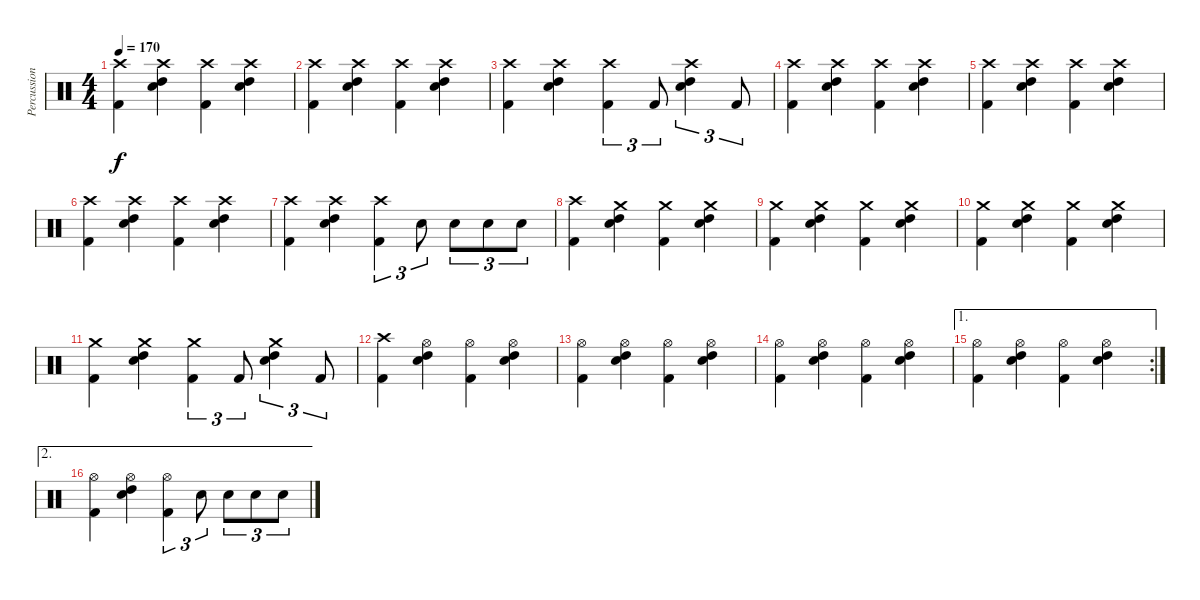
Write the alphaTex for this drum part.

\track ("Percussion" "Percussion") {instrument percussion}
\staff {score}
\articulation defaults
\ts (4 4)
\tempo 170
\clef neutral
\ks c
("Crash high (hit)" "Kick (hit) 2").4{dy f} ("Crash high (hit)" "High Tom (hit)" "Snare (hit) 2").4 ("Crash high (hit)" "Kick (hit) 2").4 ("Crash high (hit)" "High Tom (hit)" "Snare (hit) 2").4 |
("Crash high (hit)" "Kick (hit) 2").4 ("Crash high (hit)" "High Tom (hit)" "Snare (hit) 2").4 ("Crash high (hit)" "Kick (hit) 2").4 ("Crash high (hit)" "High Tom (hit)" "Snare (hit) 2").4 |
("Crash high (hit)" "Kick (hit) 2").4 ("Crash high (hit)" "High Tom (hit)" "Snare (hit) 2").4 ("Crash high (hit)" "Kick (hit) 2").4{tu (3 2)} "Kick (hit) 2".8{tu (3 2)} ("Crash high (hit)" "High Tom (hit)" "Snare (hit) 2").4{tu (3 2)} "Kick (hit) 2".8{tu (3 2)} |
("Crash high (hit)" "Kick (hit) 2").4 ("Crash high (hit)" "High Tom (hit)" "Snare (hit) 2").4 ("Crash high (hit)" "Kick (hit) 2").4 ("Crash high (hit)" "High Tom (hit)" "Snare (hit) 2").4 |
("Crash high (hit)" "Kick (hit) 2").4 ("Crash high (hit)" "High Tom (hit)" "Snare (hit) 2").4 ("Crash high (hit)" "Kick (hit) 2").4 ("Crash high (hit)" "High Tom (hit)" "Snare (hit) 2").4 |
("Crash high (hit)" "Kick (hit) 2").4 ("Crash high (hit)" "High Tom (hit)" "Snare (hit) 2").4 ("Crash high (hit)" "Kick (hit) 2").4 ("Crash high (hit)" "High Tom (hit)" "Snare (hit) 2").4 |
("Crash high (hit)" "Kick (hit) 2").4 ("Crash high (hit)" "High Tom (hit)" "Snare (hit) 2").4 ("Crash high (hit)" "Kick (hit) 2").4{tu (3 2)} "Snare (hit) 2".8{tu (3 2)} "Snare (hit) 2".8{tu (3 2)} "Snare (hit) 2".8{tu (3 2)} "Snare (hit) 2".8{tu (3 2)} |
("Crash high (hit)" "Kick (hit) 2").4 ("Crash medium (hit)" "High Tom (hit)" "Snare (hit) 2").4 ("Crash medium (hit)" "Kick (hit) 2").4 ("Crash medium (hit)" "High Tom (hit)" "Snare (hit) 2").4 |
("Crash medium (hit)" "Kick (hit) 2").4 ("Crash medium (hit)" "High Tom (hit)" "Snare (hit) 2").4 ("Crash medium (hit)" "Kick (hit) 2").4 ("Crash medium (hit)" "High Tom (hit)" "Snare (hit) 2").4 |
("Crash medium (hit)" "Kick (hit) 2").4 ("Crash medium (hit)" "High Tom (hit)" "Snare (hit) 2").4 ("Crash medium (hit)" "Kick (hit) 2").4 ("Crash medium (hit)" "High Tom (hit)" "Snare (hit) 2").4 |
("Crash medium (hit)" "Kick (hit) 2").4 ("Crash medium (hit)" "High Tom (hit)" "Snare (hit) 2").4 ("Crash medium (hit)" "Kick (hit) 2").4{tu (3 2)} "Kick (hit) 2".8{tu (3 2)} ("Crash medium (hit)" "High Tom (hit)" "Snare (hit) 2").4{tu (3 2)} "Kick (hit) 2".8{tu (3 2)} |
("Crash high (hit)" "Kick (hit) 2").4 ("Hi-Hat (open)" "High Tom (hit)" "Snare (hit) 2").4 ("Hi-Hat (open)" "Kick (hit) 2").4 ("Hi-Hat (open)" "High Tom (hit)" "Snare (hit) 2").4 |
("Hi-Hat (open)" "Kick (hit) 2").4 ("Hi-Hat (open)" "High Tom (hit)" "Snare (hit) 2").4 ("Hi-Hat (open)" "Kick (hit) 2").4 ("Hi-Hat (open)" "High Tom (hit)" "Snare (hit) 2").4 |
("Hi-Hat (open)" "Kick (hit) 2").4 ("Hi-Hat (open)" "High Tom (hit)" "Snare (hit) 2").4 ("Hi-Hat (open)" "Kick (hit) 2").4 ("Hi-Hat (open)" "High Tom (hit)" "Snare (hit) 2").4 |
\ae 1
\rc 2
("Hi-Hat (open)" "Kick (hit) 2").4 ("Hi-Hat (open)" "High Tom (hit)" "Snare (hit) 2").4 ("Hi-Hat (open)" "Kick (hit) 2").4 ("Hi-Hat (open)" "High Tom (hit)" "Snare (hit) 2").4 |
\ae 2
("Hi-Hat (open)" "Kick (hit) 2").4 ("Hi-Hat (open)" "High Tom (hit)" "Snare (hit) 2").4 ("Hi-Hat (open)" "Kick (hit) 2").4{tu (3 2)} "Snare (hit) 2".8{tu (3 2)} "Snare (hit) 2".8{tu (3 2)} "Snare (hit) 2".8{tu (3 2)} "Snare (hit) 2".8{tu (3 2)}
